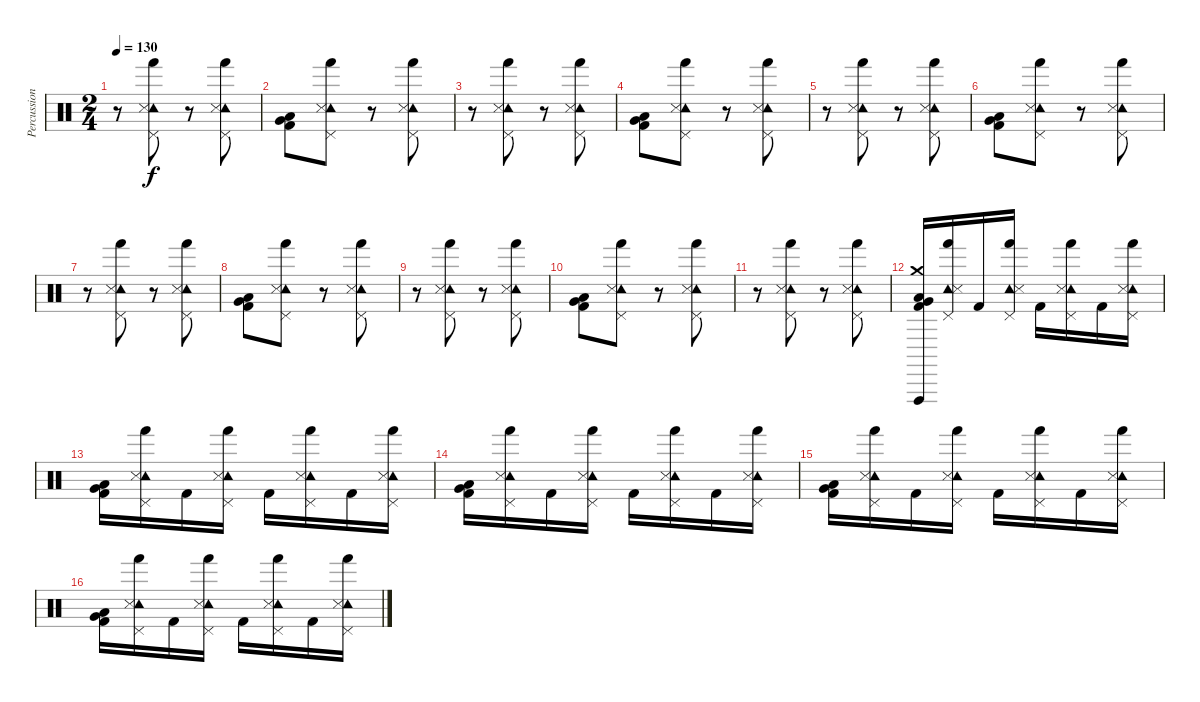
\track ("Percussion" "Percussion") {instrument percussion}
\staff {score}
\articulation defaults
\ts (2 4)
\tempo 130
\clef neutral
\ks c
r.8{dy f} ("Tambourine (hit)" "Snare (side stick) 3" "Pedal Hi-Hat (hit)" "Hand (hit)").8 r.8 ("Tambourine (hit)" "Snare (side stick) 3" "Pedal Hi-Hat (hit)" "Hand (hit)").8 |
("Very Low Tom (hit)" "Low Tom (hit)" "Kick (hit) 2").8 ("Tambourine (hit)" "Snare (side stick) 3" "Pedal Hi-Hat (hit)" "Hand (hit)").8 r.8 ("Tambourine (hit)" "Snare (side stick) 3" "Pedal Hi-Hat (hit)" "Hand (hit)").8 |
r.8 ("Tambourine (hit)" "Snare (side stick) 3" "Pedal Hi-Hat (hit)" "Hand (hit)").8 r.8 ("Tambourine (hit)" "Snare (side stick) 3" "Pedal Hi-Hat (hit)" "Hand (hit)").8 |
("Very Low Tom (hit)" "Low Tom (hit)" "Kick (hit) 2").8 ("Tambourine (hit)" "Snare (side stick) 3" "Pedal Hi-Hat (hit)" "Hand (hit)").8 r.8 ("Tambourine (hit)" "Snare (side stick) 3" "Pedal Hi-Hat (hit)" "Hand (hit)").8 |
r.8 ("Tambourine (hit)" "Snare (side stick) 3" "Pedal Hi-Hat (hit)" "Hand (hit)").8 r.8 ("Tambourine (hit)" "Snare (side stick) 3" "Pedal Hi-Hat (hit)" "Hand (hit)").8 |
("Very Low Tom (hit)" "Low Tom (hit)" "Kick (hit) 2").8 ("Tambourine (hit)" "Snare (side stick) 3" "Pedal Hi-Hat (hit)" "Hand (hit)").8 r.8 ("Tambourine (hit)" "Snare (side stick) 3" "Pedal Hi-Hat (hit)" "Hand (hit)").8 |
r.8 ("Tambourine (hit)" "Snare (side stick) 3" "Pedal Hi-Hat (hit)" "Hand (hit)").8 r.8 ("Tambourine (hit)" "Snare (side stick) 3" "Pedal Hi-Hat (hit)" "Hand (hit)").8 |
("Very Low Tom (hit)" "Low Tom (hit)" "Kick (hit) 2").8 ("Tambourine (hit)" "Snare (side stick) 3" "Pedal Hi-Hat (hit)" "Hand (hit)").8 r.8 ("Tambourine (hit)" "Snare (side stick) 3" "Pedal Hi-Hat (hit)" "Hand (hit)").8 |
r.8 ("Tambourine (hit)" "Snare (side stick) 3" "Pedal Hi-Hat (hit)" "Hand (hit)").8 r.8 ("Tambourine (hit)" "Snare (side stick) 3" "Pedal Hi-Hat (hit)" "Hand (hit)").8 |
("Very Low Tom (hit)" "Low Tom (hit)" "Kick (hit) 2").8 ("Tambourine (hit)" "Snare (side stick) 3" "Pedal Hi-Hat (hit)" "Hand (hit)").8 r.8 ("Tambourine (hit)" "Snare (side stick) 3" "Pedal Hi-Hat (hit)" "Hand (hit)").8 |
r.8 ("Tambourine (hit)" "Snare (side stick) 3" "Pedal Hi-Hat (hit)" "Hand (hit)").8 r.8 ("Tambourine (hit)" "Snare (side stick) 3" "Pedal Hi-Hat (hit)" "Hand (hit)").8 |
("Crash medium (hit)" "Vibraslap (hit)" "Very Low Tom (hit)" "Low Tom (hit)" "Kick (hit) 2").16 ("Tambourine (hit)" "Snare (side stick) 3" "Pedal Hi-Hat (hit)" "Hand (hit)").16 "Kick (hit) 2".16 ("Tambourine (hit)" "Snare (side stick) 3" "Pedal Hi-Hat (hit)" "Hand (hit)").16 "Kick (hit) 2".16 ("Tambourine (hit)" "Snare (side stick) 3" "Pedal Hi-Hat (hit)" "Hand (hit)").16 "Kick (hit) 2".16 ("Tambourine (hit)" "Snare (side stick) 3" "Pedal Hi-Hat (hit)" "Hand (hit)").16 |
("Very Low Tom (hit)" "Low Tom (hit)" "Kick (hit) 2").16 ("Tambourine (hit)" "Snare (side stick) 3" "Pedal Hi-Hat (hit)" "Hand (hit)").16 "Kick (hit) 2".16 ("Tambourine (hit)" "Snare (side stick) 3" "Pedal Hi-Hat (hit)" "Hand (hit)").16 "Kick (hit) 2".16 ("Tambourine (hit)" "Snare (side stick) 3" "Pedal Hi-Hat (hit)" "Hand (hit)").16 "Kick (hit) 2".16 ("Tambourine (hit)" "Snare (side stick) 3" "Pedal Hi-Hat (hit)" "Hand (hit)").16 |
("Very Low Tom (hit)" "Low Tom (hit)" "Kick (hit) 2").16 ("Tambourine (hit)" "Snare (side stick) 3" "Pedal Hi-Hat (hit)" "Hand (hit)").16 "Kick (hit) 2".16 ("Tambourine (hit)" "Snare (side stick) 3" "Pedal Hi-Hat (hit)" "Hand (hit)").16 "Kick (hit) 2".16 ("Tambourine (hit)" "Snare (side stick) 3" "Pedal Hi-Hat (hit)" "Hand (hit)").16 "Kick (hit) 2".16 ("Tambourine (hit)" "Snare (side stick) 3" "Pedal Hi-Hat (hit)" "Hand (hit)").16 |
("Very Low Tom (hit)" "Low Tom (hit)" "Kick (hit) 2").16 ("Tambourine (hit)" "Snare (side stick) 3" "Pedal Hi-Hat (hit)" "Hand (hit)").16 "Kick (hit) 2".16 ("Tambourine (hit)" "Snare (side stick) 3" "Pedal Hi-Hat (hit)" "Hand (hit)").16 "Kick (hit) 2".16 ("Tambourine (hit)" "Snare (side stick) 3" "Pedal Hi-Hat (hit)" "Hand (hit)").16 "Kick (hit) 2".16 ("Tambourine (hit)" "Snare (side stick) 3" "Pedal Hi-Hat (hit)" "Hand (hit)").16 |
("Very Low Tom (hit)" "Low Tom (hit)" "Kick (hit) 2").16 ("Tambourine (hit)" "Snare (side stick) 3" "Pedal Hi-Hat (hit)" "Hand (hit)").16 "Kick (hit) 2".16 ("Tambourine (hit)" "Snare (side stick) 3" "Pedal Hi-Hat (hit)" "Hand (hit)").16 "Kick (hit) 2".16 ("Tambourine (hit)" "Snare (side stick) 3" "Pedal Hi-Hat (hit)" "Hand (hit)").16 "Kick (hit) 2".16 ("Tambourine (hit)" "Snare (side stick) 3" "Pedal Hi-Hat (hit)" "Hand (hit)").16
